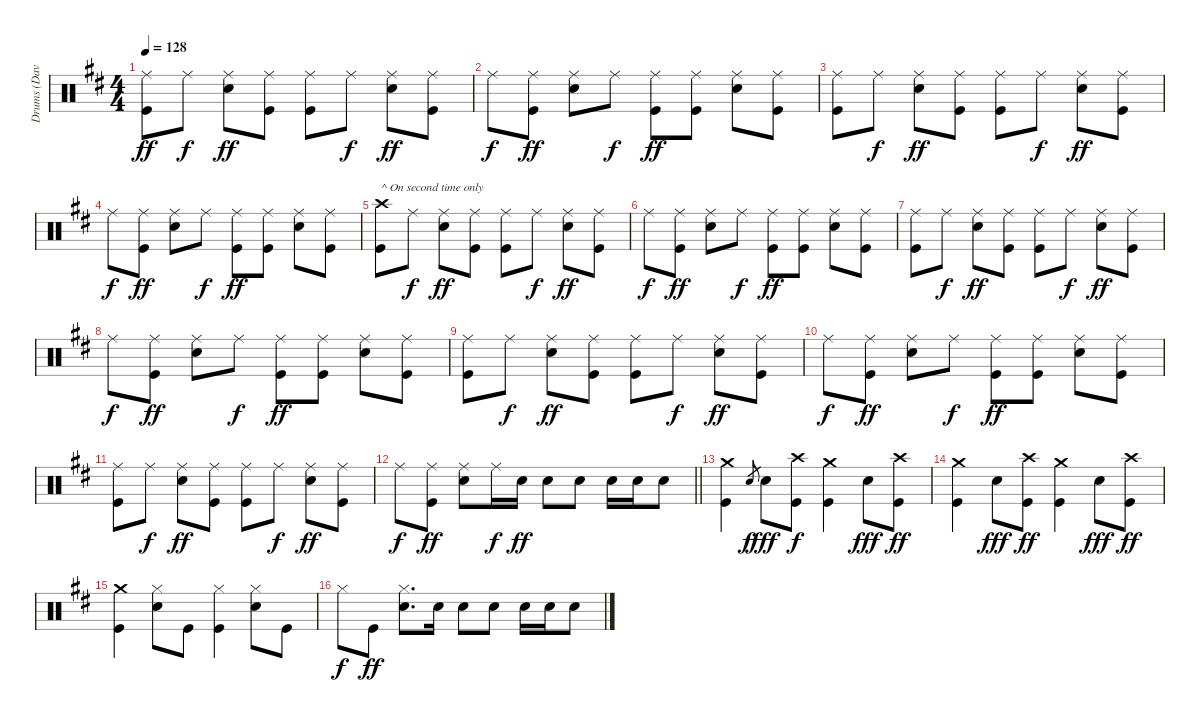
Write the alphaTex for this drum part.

\track ("Drums (Dave)" "Drums (Dav") {instrument percussion}
\staff {score}
\articulation defaults
\ts (4 4)
\tempo 128
\clef neutral
\ks d
("Ride (middle)" "Kick (hit)").8{dy ff} "Ride (middle)".8{dy f} ("Ride (middle)" "Electric Snare (hit)").8{dy ff} ("Ride (middle)" "Kick (hit)").8 ("Ride (middle)" "Kick (hit)").8 "Ride (middle)".8{dy f} ("Ride (middle)" "Electric Snare (hit)").8{dy ff} ("Ride (middle)" "Kick (hit)").8 |
"Ride (middle)".8{dy f} ("Ride (middle)" "Kick (hit)").8{dy ff} ("Ride (middle)" "Electric Snare (hit)").8 "Ride (middle)".8{dy f} ("Ride (middle)" "Kick (hit)").8{dy ff} ("Ride (middle)" "Kick (hit)").8 ("Ride (middle)" "Electric Snare (hit)").8 ("Ride (middle)" "Kick (hit)").8 |
("Ride (middle)" "Kick (hit)").8 "Ride (middle)".8{dy f} ("Ride (middle)" "Electric Snare (hit)").8{dy ff} ("Ride (middle)" "Kick (hit)").8 ("Ride (middle)" "Kick (hit)").8 "Ride (middle)".8{dy f} ("Ride (middle)" "Electric Snare (hit)").8{dy ff} ("Ride (middle)" "Kick (hit)").8 |
"Ride (middle)".8{dy f} ("Ride (middle)" "Kick (hit)").8{dy ff} ("Ride (middle)" "Electric Snare (hit)").8 "Ride (middle)".8{dy f} ("Ride (middle)" "Kick (hit)").8{dy ff} ("Ride (middle)" "Kick (hit)").8 ("Ride (middle)" "Electric Snare (hit)").8 ("Ride (middle)" "Kick (hit)").8 |
("Crash high (hit)" "Kick (hit)").8{txt "^ On second time only"} "Ride (middle)".8{dy f} ("Ride (middle)" "Electric Snare (hit)").8{dy ff} ("Ride (middle)" "Kick (hit)").8 ("Ride (middle)" "Kick (hit)").8 "Ride (middle)".8{dy f} ("Ride (middle)" "Electric Snare (hit)").8{dy ff} ("Ride (middle)" "Kick (hit)").8 |
"Ride (middle)".8{dy f} ("Ride (middle)" "Kick (hit)").8{dy ff} ("Ride (middle)" "Electric Snare (hit)").8 "Ride (middle)".8{dy f} ("Ride (middle)" "Kick (hit)").8{dy ff} ("Ride (middle)" "Kick (hit)").8 ("Ride (middle)" "Electric Snare (hit)").8 ("Ride (middle)" "Kick (hit)").8 |
("Ride (middle)" "Kick (hit)").8 "Ride (middle)".8{dy f} ("Ride (middle)" "Electric Snare (hit)").8{dy ff} ("Ride (middle)" "Kick (hit)").8 ("Ride (middle)" "Kick (hit)").8 "Ride (middle)".8{dy f} ("Ride (middle)" "Electric Snare (hit)").8{dy ff} ("Ride (middle)" "Kick (hit)").8 |
"Ride (middle)".8{dy f} ("Ride (middle)" "Kick (hit)").8{dy ff} ("Ride (middle)" "Electric Snare (hit)").8 "Ride (middle)".8{dy f} ("Ride (middle)" "Kick (hit)").8{dy ff} ("Ride (middle)" "Kick (hit)").8 ("Ride (middle)" "Electric Snare (hit)").8 ("Ride (middle)" "Kick (hit)").8 |
("Ride (middle)" "Kick (hit)").8 "Ride (middle)".8{dy f} ("Ride (middle)" "Electric Snare (hit)").8{dy ff} ("Ride (middle)" "Kick (hit)").8 ("Ride (middle)" "Kick (hit)").8 "Ride (middle)".8{dy f} ("Ride (middle)" "Electric Snare (hit)").8{dy ff} ("Ride (middle)" "Kick (hit)").8 |
"Ride (middle)".8{dy f} ("Ride (middle)" "Kick (hit)").8{dy ff} ("Ride (middle)" "Electric Snare (hit)").8 "Ride (middle)".8{dy f} ("Ride (middle)" "Kick (hit)").8{dy ff} ("Ride (middle)" "Kick (hit)").8 ("Ride (middle)" "Electric Snare (hit)").8 ("Ride (middle)" "Kick (hit)").8 |
("Ride (middle)" "Kick (hit)").8 "Ride (middle)".8{dy f} ("Ride (middle)" "Electric Snare (hit)").8{dy ff} ("Ride (middle)" "Kick (hit)").8 ("Ride (middle)" "Kick (hit)").8 "Ride (middle)".8{dy f} ("Ride (middle)" "Electric Snare (hit)").8{dy ff} ("Ride (middle)" "Kick (hit)").8 |
\barLineRight lightlight "Ride (middle)".8{dy f}
("Ride (middle)" "Kick (hit)").8{dy ff} ("Ride (middle)" "Electric Snare (hit)").8 "Ride (middle)".16{dy f} "Electric Snare (hit)".16{dy ff} "Electric Snare (hit)".8 "Electric Snare (hit)".8 "Electric Snare (hit)".16 "Electric Snare (hit)".16 "Electric Snare (hit)".8 |
\section ("" "")
("Crash medium (hit)" "Kick (hit)").4 "Electric Snare (hit)".8{gr dy f} "Electric Snare (hit)".8{dy fff} ("Crash high (hit)" "Kick (hit)").8{dy f} ("Crash medium (hit)" "Kick (hit)").4 "Electric Snare (hit)".8{dy fff} ("Crash high (hit)" "Kick (hit)").8{dy ff} |
("Crash medium (hit)" "Kick (hit)").4 "Electric Snare (hit)".8{dy fff} ("Crash high (hit)" "Kick (hit)").8{dy ff} ("Crash medium (hit)" "Kick (hit)").4 "Electric Snare (hit)".8{dy fff} ("Crash high (hit)" "Kick (hit)").8{dy ff} |
("Crash medium (hit)" "Kick (hit)").4 ("Hi-Hat (closed)" "Electric Snare (hit)").8 "Kick (hit)".8 ("Hi-Hat (closed)" "Kick (hit)").4 ("Hi-Hat (closed)" "Electric Snare (hit)").8 "Kick (hit)".8 |
"Hi-Hat (closed)".8{dy f} "Kick (hit)".8{dy ff} ("Hi-Hat (closed)" "Electric Snare (hit)").8{d} "Electric Snare (hit)".16 "Electric Snare (hit)".8 "Electric Snare (hit)".8 "Electric Snare (hit)".16 "Electric Snare (hit)".16 "Electric Snare (hit)".8
